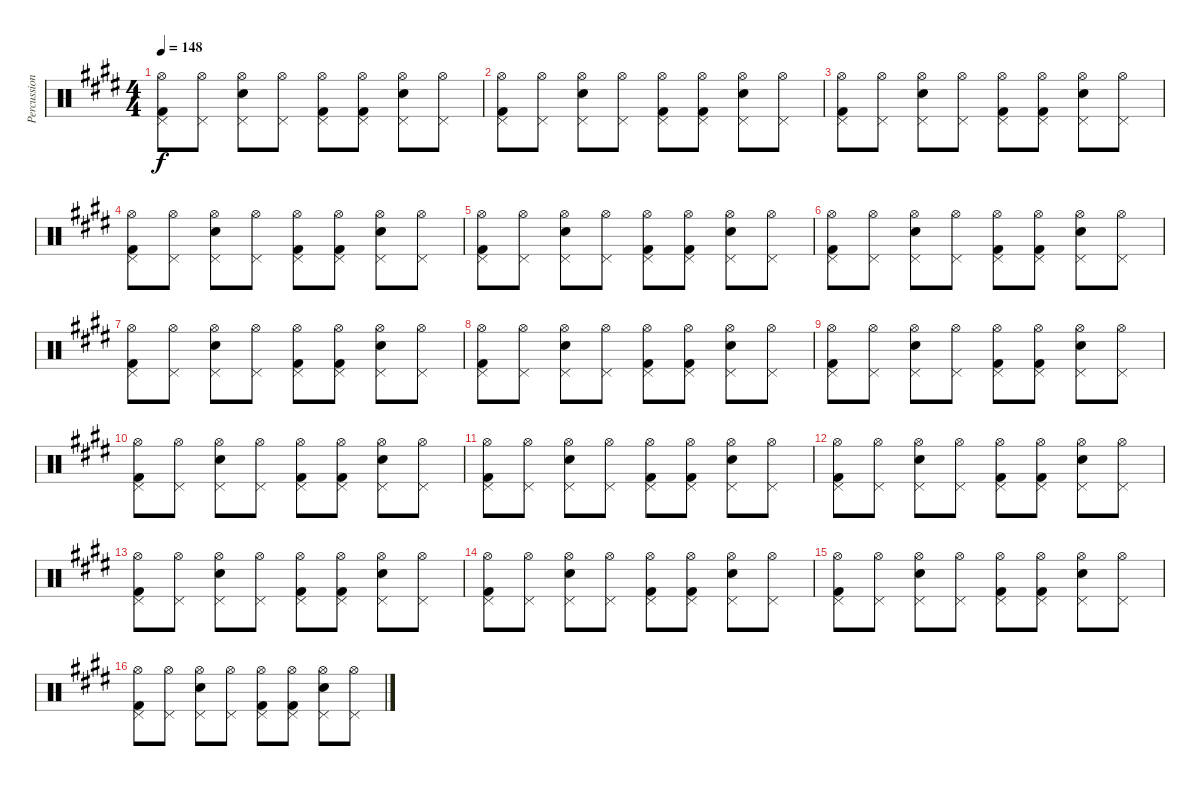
\track ("Percussion" "Percussion") {instrument percussion}
\staff {score}
\articulation defaults
\ts (4 4)
\tempo 148
\clef neutral
\ks e
("Hi-Hat (open)" "Pedal Hi-Hat (hit)" "Kick (hit) 2").8{dy f} ("Hi-Hat (open)" "Pedal Hi-Hat (hit)").8 ("Hi-Hat (open)" "Pedal Hi-Hat (hit)" "Snare (hit) 2").8 ("Hi-Hat (open)" "Pedal Hi-Hat (hit)").8 ("Hi-Hat (open)" "Pedal Hi-Hat (hit)" "Kick (hit) 2").8 ("Hi-Hat (open)" "Pedal Hi-Hat (hit)" "Kick (hit) 2").8 ("Hi-Hat (open)" "Pedal Hi-Hat (hit)" "Snare (hit) 2").8 ("Hi-Hat (open)" "Pedal Hi-Hat (hit)").8 |
("Hi-Hat (open)" "Pedal Hi-Hat (hit)" "Kick (hit) 2").8 ("Hi-Hat (open)" "Pedal Hi-Hat (hit)").8 ("Hi-Hat (open)" "Pedal Hi-Hat (hit)" "Snare (hit) 2").8 ("Hi-Hat (open)" "Pedal Hi-Hat (hit)").8 ("Hi-Hat (open)" "Pedal Hi-Hat (hit)" "Kick (hit) 2").8 ("Hi-Hat (open)" "Pedal Hi-Hat (hit)" "Kick (hit) 2").8 ("Hi-Hat (open)" "Pedal Hi-Hat (hit)" "Snare (hit) 2").8 ("Hi-Hat (open)" "Pedal Hi-Hat (hit)").8 |
("Hi-Hat (open)" "Pedal Hi-Hat (hit)" "Kick (hit) 2").8 ("Hi-Hat (open)" "Pedal Hi-Hat (hit)").8 ("Hi-Hat (open)" "Pedal Hi-Hat (hit)" "Snare (hit) 2").8 ("Hi-Hat (open)" "Pedal Hi-Hat (hit)").8 ("Hi-Hat (open)" "Pedal Hi-Hat (hit)" "Kick (hit) 2").8 ("Hi-Hat (open)" "Pedal Hi-Hat (hit)" "Kick (hit) 2").8 ("Hi-Hat (open)" "Pedal Hi-Hat (hit)" "Snare (hit) 2").8 ("Hi-Hat (open)" "Pedal Hi-Hat (hit)").8 |
("Hi-Hat (open)" "Pedal Hi-Hat (hit)" "Kick (hit) 2").8 ("Hi-Hat (open)" "Pedal Hi-Hat (hit)").8 ("Hi-Hat (open)" "Pedal Hi-Hat (hit)" "Snare (hit) 2").8 ("Hi-Hat (open)" "Pedal Hi-Hat (hit)").8 ("Hi-Hat (open)" "Pedal Hi-Hat (hit)" "Kick (hit) 2").8 ("Hi-Hat (open)" "Pedal Hi-Hat (hit)" "Kick (hit) 2").8 ("Hi-Hat (open)" "Pedal Hi-Hat (hit)" "Snare (hit) 2").8 ("Hi-Hat (open)" "Pedal Hi-Hat (hit)").8 |
("Hi-Hat (open)" "Pedal Hi-Hat (hit)" "Kick (hit) 2").8 ("Hi-Hat (open)" "Pedal Hi-Hat (hit)").8 ("Hi-Hat (open)" "Pedal Hi-Hat (hit)" "Snare (hit) 2").8 ("Hi-Hat (open)" "Pedal Hi-Hat (hit)").8 ("Hi-Hat (open)" "Pedal Hi-Hat (hit)" "Kick (hit) 2").8 ("Hi-Hat (open)" "Pedal Hi-Hat (hit)" "Kick (hit) 2").8 ("Hi-Hat (open)" "Pedal Hi-Hat (hit)" "Snare (hit) 2").8 ("Hi-Hat (open)" "Pedal Hi-Hat (hit)").8 |
("Hi-Hat (open)" "Pedal Hi-Hat (hit)" "Kick (hit) 2").8 ("Hi-Hat (open)" "Pedal Hi-Hat (hit)").8 ("Hi-Hat (open)" "Pedal Hi-Hat (hit)" "Snare (hit) 2").8 ("Hi-Hat (open)" "Pedal Hi-Hat (hit)").8 ("Hi-Hat (open)" "Pedal Hi-Hat (hit)" "Kick (hit) 2").8 ("Hi-Hat (open)" "Pedal Hi-Hat (hit)" "Kick (hit) 2").8 ("Hi-Hat (open)" "Pedal Hi-Hat (hit)" "Snare (hit) 2").8 ("Hi-Hat (open)" "Pedal Hi-Hat (hit)").8 |
("Hi-Hat (open)" "Pedal Hi-Hat (hit)" "Kick (hit) 2").8 ("Hi-Hat (open)" "Pedal Hi-Hat (hit)").8 ("Hi-Hat (open)" "Pedal Hi-Hat (hit)" "Snare (hit) 2").8 ("Hi-Hat (open)" "Pedal Hi-Hat (hit)").8 ("Hi-Hat (open)" "Pedal Hi-Hat (hit)" "Kick (hit) 2").8 ("Hi-Hat (open)" "Pedal Hi-Hat (hit)" "Kick (hit) 2").8 ("Hi-Hat (open)" "Pedal Hi-Hat (hit)" "Snare (hit) 2").8 ("Hi-Hat (open)" "Pedal Hi-Hat (hit)").8 |
("Hi-Hat (open)" "Pedal Hi-Hat (hit)" "Kick (hit) 2").8 ("Hi-Hat (open)" "Pedal Hi-Hat (hit)").8 ("Hi-Hat (open)" "Pedal Hi-Hat (hit)" "Snare (hit) 2").8 ("Hi-Hat (open)" "Pedal Hi-Hat (hit)").8 ("Hi-Hat (open)" "Pedal Hi-Hat (hit)" "Kick (hit) 2").8 ("Hi-Hat (open)" "Pedal Hi-Hat (hit)" "Kick (hit) 2").8 ("Hi-Hat (open)" "Pedal Hi-Hat (hit)" "Snare (hit) 2").8 ("Hi-Hat (open)" "Pedal Hi-Hat (hit)").8 |
("Hi-Hat (open)" "Pedal Hi-Hat (hit)" "Kick (hit) 2").8 ("Hi-Hat (open)" "Pedal Hi-Hat (hit)").8 ("Hi-Hat (open)" "Pedal Hi-Hat (hit)" "Snare (hit) 2").8 ("Hi-Hat (open)" "Pedal Hi-Hat (hit)").8 ("Hi-Hat (open)" "Pedal Hi-Hat (hit)" "Kick (hit) 2").8 ("Hi-Hat (open)" "Pedal Hi-Hat (hit)" "Kick (hit) 2").8 ("Hi-Hat (open)" "Pedal Hi-Hat (hit)" "Snare (hit) 2").8 ("Hi-Hat (open)" "Pedal Hi-Hat (hit)").8 |
("Hi-Hat (open)" "Pedal Hi-Hat (hit)" "Kick (hit) 2").8 ("Hi-Hat (open)" "Pedal Hi-Hat (hit)").8 ("Hi-Hat (open)" "Pedal Hi-Hat (hit)" "Snare (hit) 2").8 ("Hi-Hat (open)" "Pedal Hi-Hat (hit)").8 ("Hi-Hat (open)" "Pedal Hi-Hat (hit)" "Kick (hit) 2").8 ("Hi-Hat (open)" "Pedal Hi-Hat (hit)" "Kick (hit) 2").8 ("Hi-Hat (open)" "Pedal Hi-Hat (hit)" "Snare (hit) 2").8 ("Hi-Hat (open)" "Pedal Hi-Hat (hit)").8 |
("Hi-Hat (open)" "Pedal Hi-Hat (hit)" "Kick (hit) 2").8 ("Hi-Hat (open)" "Pedal Hi-Hat (hit)").8 ("Hi-Hat (open)" "Pedal Hi-Hat (hit)" "Snare (hit) 2").8 ("Hi-Hat (open)" "Pedal Hi-Hat (hit)").8 ("Hi-Hat (open)" "Pedal Hi-Hat (hit)" "Kick (hit) 2").8 ("Hi-Hat (open)" "Pedal Hi-Hat (hit)" "Kick (hit) 2").8 ("Hi-Hat (open)" "Pedal Hi-Hat (hit)" "Snare (hit) 2").8 ("Hi-Hat (open)" "Pedal Hi-Hat (hit)").8 |
("Hi-Hat (open)" "Pedal Hi-Hat (hit)" "Kick (hit) 2").8 ("Hi-Hat (open)" "Pedal Hi-Hat (hit)").8 ("Hi-Hat (open)" "Pedal Hi-Hat (hit)" "Snare (hit) 2").8 ("Hi-Hat (open)" "Pedal Hi-Hat (hit)").8 ("Hi-Hat (open)" "Pedal Hi-Hat (hit)" "Kick (hit) 2").8 ("Hi-Hat (open)" "Pedal Hi-Hat (hit)" "Kick (hit) 2").8 ("Hi-Hat (open)" "Pedal Hi-Hat (hit)" "Snare (hit) 2").8 ("Hi-Hat (open)" "Pedal Hi-Hat (hit)").8 |
("Hi-Hat (open)" "Pedal Hi-Hat (hit)" "Kick (hit) 2").8 ("Hi-Hat (open)" "Pedal Hi-Hat (hit)").8 ("Hi-Hat (open)" "Pedal Hi-Hat (hit)" "Snare (hit) 2").8 ("Hi-Hat (open)" "Pedal Hi-Hat (hit)").8 ("Hi-Hat (open)" "Pedal Hi-Hat (hit)" "Kick (hit) 2").8 ("Hi-Hat (open)" "Pedal Hi-Hat (hit)" "Kick (hit) 2").8 ("Hi-Hat (open)" "Pedal Hi-Hat (hit)" "Snare (hit) 2").8 ("Hi-Hat (open)" "Pedal Hi-Hat (hit)").8 |
("Hi-Hat (open)" "Pedal Hi-Hat (hit)" "Kick (hit) 2").8 ("Hi-Hat (open)" "Pedal Hi-Hat (hit)").8 ("Hi-Hat (open)" "Pedal Hi-Hat (hit)" "Snare (hit) 2").8 ("Hi-Hat (open)" "Pedal Hi-Hat (hit)").8 ("Hi-Hat (open)" "Pedal Hi-Hat (hit)" "Kick (hit) 2").8 ("Hi-Hat (open)" "Pedal Hi-Hat (hit)" "Kick (hit) 2").8 ("Hi-Hat (open)" "Pedal Hi-Hat (hit)" "Snare (hit) 2").8 ("Hi-Hat (open)" "Pedal Hi-Hat (hit)").8 |
("Hi-Hat (open)" "Pedal Hi-Hat (hit)" "Kick (hit) 2").8 ("Hi-Hat (open)" "Pedal Hi-Hat (hit)").8 ("Hi-Hat (open)" "Pedal Hi-Hat (hit)" "Snare (hit) 2").8 ("Hi-Hat (open)" "Pedal Hi-Hat (hit)").8 ("Hi-Hat (open)" "Pedal Hi-Hat (hit)" "Kick (hit) 2").8 ("Hi-Hat (open)" "Pedal Hi-Hat (hit)" "Kick (hit) 2").8 ("Hi-Hat (open)" "Pedal Hi-Hat (hit)" "Snare (hit) 2").8 ("Hi-Hat (open)" "Pedal Hi-Hat (hit)").8 |
("Hi-Hat (open)" "Pedal Hi-Hat (hit)" "Kick (hit) 2").8 ("Hi-Hat (open)" "Pedal Hi-Hat (hit)").8 ("Hi-Hat (open)" "Pedal Hi-Hat (hit)" "Snare (hit) 2").8 ("Hi-Hat (open)" "Pedal Hi-Hat (hit)").8 ("Hi-Hat (open)" "Pedal Hi-Hat (hit)" "Kick (hit) 2").8 ("Hi-Hat (open)" "Pedal Hi-Hat (hit)" "Kick (hit) 2").8 ("Hi-Hat (open)" "Pedal Hi-Hat (hit)" "Snare (hit) 2").8 ("Hi-Hat (open)" "Pedal Hi-Hat (hit)").8
